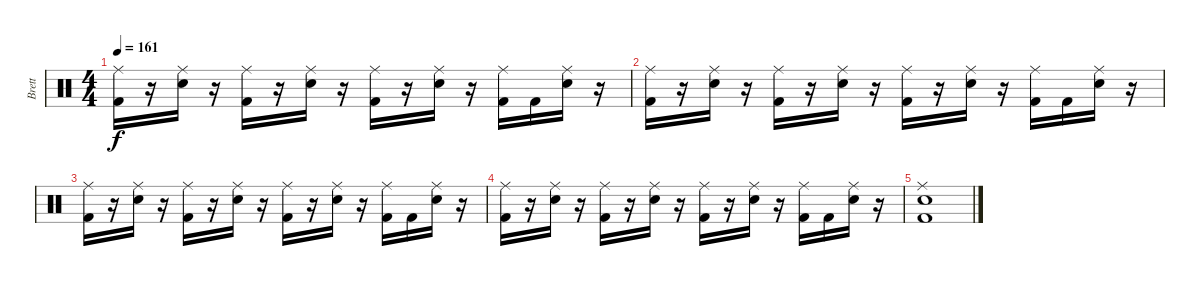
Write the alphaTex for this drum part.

\track ("Brett" "Brett") {instrument percussion}
\staff {score}
\articulation defaults
\ts (4 4)
\tempo 161
\clef neutral
\ks c
("Ride (middle)" "Kick (hit) 2").16{dy f} r.16 ("Ride (middle)" "Electric Snare (hit)").16 r.16 ("Ride (middle)" "Kick (hit) 2").16 r.16 ("Ride (middle)" "Electric Snare (hit)").16 r.16 ("Ride (middle)" "Kick (hit) 2").16 r.16 ("Ride (middle)" "Electric Snare (hit)").16 r.16 ("Ride (middle)" "Kick (hit) 2").16 "Kick (hit) 2".16 ("Ride (middle)" "Electric Snare (hit)").16 r.16 |
("Ride (middle)" "Kick (hit) 2").16 r.16 ("Ride (middle)" "Electric Snare (hit)").16 r.16 ("Ride (middle)" "Kick (hit) 2").16 r.16 ("Ride (middle)" "Electric Snare (hit)").16 r.16 ("Ride (middle)" "Kick (hit) 2").16 r.16 ("Ride (middle)" "Electric Snare (hit)").16 r.16 ("Ride (middle)" "Kick (hit) 2").16 "Kick (hit) 2".16 ("Ride (middle)" "Electric Snare (hit)").16 r.16 |
("Ride (middle)" "Kick (hit) 2").16 r.16 ("Ride (middle)" "Electric Snare (hit)").16 r.16 ("Ride (middle)" "Kick (hit) 2").16 r.16 ("Ride (middle)" "Electric Snare (hit)").16 r.16 ("Ride (middle)" "Kick (hit) 2").16 r.16 ("Ride (middle)" "Electric Snare (hit)").16 r.16 ("Ride (middle)" "Kick (hit) 2").16 "Kick (hit) 2".16 ("Ride (middle)" "Electric Snare (hit)").16 r.16 |
("Ride (middle)" "Kick (hit) 2").16 r.16 ("Ride (middle)" "Electric Snare (hit)").16 r.16 ("Ride (middle)" "Kick (hit) 2").16 r.16 ("Ride (middle)" "Electric Snare (hit)").16 r.16 ("Ride (middle)" "Kick (hit) 2").16 r.16 ("Ride (middle)" "Electric Snare (hit)").16 r.16 ("Ride (middle)" "Kick (hit) 2").16 "Kick (hit) 2".16 ("Ride (middle)" "Electric Snare (hit)").16 r.16 |
("Ride (middle)" "Electric Snare (hit)" "Kick (hit) 2").1
